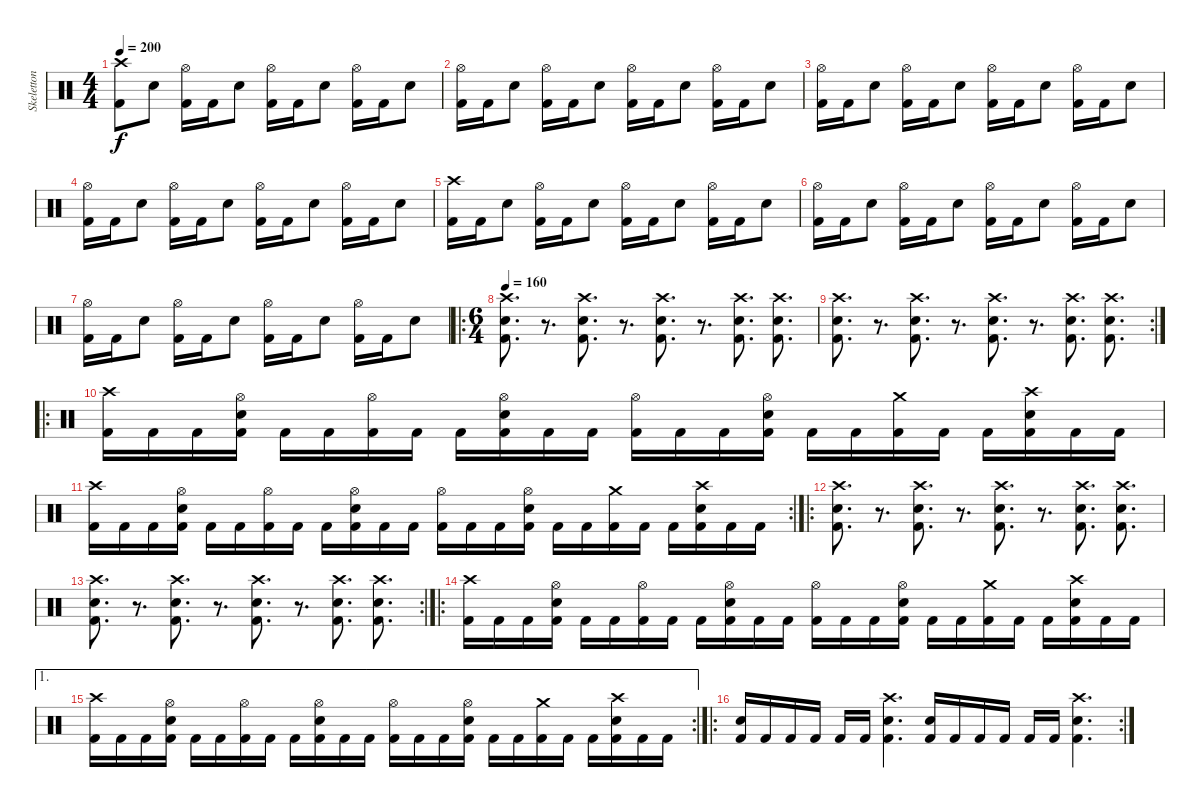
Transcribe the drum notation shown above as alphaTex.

\track ("Skeletton - Drums" "Skeletton ") {instrument percussion}
\staff {score}
\articulation defaults
\ts (4 4)
\tempo 200
\clef neutral
\ks c
("Crash high (hit)" "Kick (hit) 2").8{dy f} "Electric Snare (hit)".8 ("Hi-Hat (open)" "Kick (hit) 2").16 "Kick (hit) 2".16 "Electric Snare (hit)".8 ("Hi-Hat (open)" "Kick (hit) 2").16 "Kick (hit) 2".16 "Electric Snare (hit)".8 ("Hi-Hat (open)" "Kick (hit) 2").16 "Kick (hit) 2".16 "Electric Snare (hit)".8 |
("Hi-Hat (open)" "Kick (hit) 2").16 "Kick (hit) 2".16 "Electric Snare (hit)".8 ("Hi-Hat (open)" "Kick (hit) 2").16 "Kick (hit) 2".16 "Electric Snare (hit)".8 ("Hi-Hat (open)" "Kick (hit) 2").16 "Kick (hit) 2".16 "Electric Snare (hit)".8 ("Hi-Hat (open)" "Kick (hit) 2").16 "Kick (hit) 2".16 "Electric Snare (hit)".8 |
("Hi-Hat (open)" "Kick (hit) 2").16 "Kick (hit) 2".16 "Electric Snare (hit)".8 ("Hi-Hat (open)" "Kick (hit) 2").16 "Kick (hit) 2".16 "Electric Snare (hit)".8 ("Hi-Hat (open)" "Kick (hit) 2").16 "Kick (hit) 2".16 "Electric Snare (hit)".8 ("Hi-Hat (open)" "Kick (hit) 2").16 "Kick (hit) 2".16 "Electric Snare (hit)".8 |
("Hi-Hat (open)" "Kick (hit) 2").16 "Kick (hit) 2".16 "Electric Snare (hit)".8 ("Hi-Hat (open)" "Kick (hit) 2").16 "Kick (hit) 2".16 "Electric Snare (hit)".8 ("Hi-Hat (open)" "Kick (hit) 2").16 "Kick (hit) 2".16 "Electric Snare (hit)".8 ("Hi-Hat (open)" "Kick (hit) 2").16 "Kick (hit) 2".16 "Electric Snare (hit)".8 |
("Crash high (hit)" "Kick (hit) 2").16 "Kick (hit) 2".16 "Electric Snare (hit)".8 ("Hi-Hat (open)" "Kick (hit) 2").16 "Kick (hit) 2".16 "Electric Snare (hit)".8 ("Hi-Hat (open)" "Kick (hit) 2").16 "Kick (hit) 2".16 "Electric Snare (hit)".8 ("Hi-Hat (open)" "Kick (hit) 2").16 "Kick (hit) 2".16 "Electric Snare (hit)".8 |
("Hi-Hat (open)" "Kick (hit) 2").16 "Kick (hit) 2".16 "Electric Snare (hit)".8 ("Hi-Hat (open)" "Kick (hit) 2").16 "Kick (hit) 2".16 "Electric Snare (hit)".8 ("Hi-Hat (open)" "Kick (hit) 2").16 "Kick (hit) 2".16 "Electric Snare (hit)".8 ("Hi-Hat (open)" "Kick (hit) 2").16 "Kick (hit) 2".16 "Electric Snare (hit)".8 |
("Hi-Hat (open)" "Kick (hit) 2").16 "Kick (hit) 2".16 "Electric Snare (hit)".8 ("Hi-Hat (open)" "Kick (hit) 2").16 "Kick (hit) 2".16 "Electric Snare (hit)".8 ("Hi-Hat (open)" "Kick (hit) 2").16 "Kick (hit) 2".16 "Electric Snare (hit)".8 ("Hi-Hat (open)" "Kick (hit) 2").16 "Kick (hit) 2".16 "Electric Snare (hit)".8 |
\ro
\ts (6 4)
\tempo 160
("Crash high (hit)" "Electric Snare (hit)" "Kick (hit) 2").8{d} r.8{d} ("Crash high (hit)" "Electric Snare (hit)" "Kick (hit) 2").8{d} r.8{d} ("Crash high (hit)" "Electric Snare (hit)" "Kick (hit) 2").8{d} r.8{d} ("Crash high (hit)" "Electric Snare (hit)" "Kick (hit) 2").8{d} ("Crash high (hit)" "Electric Snare (hit)" "Kick (hit) 2").8{d} |
\rc 2
("Crash high (hit)" "Electric Snare (hit)" "Kick (hit) 2").8{d} r.8{d} ("Crash high (hit)" "Electric Snare (hit)" "Kick (hit) 2").8{d} r.8{d} ("Crash high (hit)" "Electric Snare (hit)" "Kick (hit) 2").8{d} r.8{d} ("Crash high (hit)" "Electric Snare (hit)" "Kick (hit) 2").8{d} ("Crash high (hit)" "Electric Snare (hit)" "Kick (hit) 2").8{d} |
\ro
("Crash high (hit)" "Kick (hit) 2").16 "Kick (hit) 2".16 "Kick (hit) 2".16 ("Hi-Hat (open)" "Electric Snare (hit)" "Kick (hit) 2").16 "Kick (hit) 2".16 "Kick (hit) 2".16 ("Hi-Hat (open)" "Kick (hit) 2").16 "Kick (hit) 2".16 "Kick (hit) 2".16 ("Hi-Hat (open)" "Electric Snare (hit)" "Kick (hit) 2").16 "Kick (hit) 2".16 "Kick (hit) 2".16 ("Hi-Hat (open)" "Kick (hit) 2").16 "Kick (hit) 2".16 "Kick (hit) 2".16 ("Hi-Hat (open)" "Electric Snare (hit)" "Kick (hit) 2").16 "Kick (hit) 2".16 "Kick (hit) 2".16 ("Crash medium (hit)" "Kick (hit) 2").16 "Kick (hit) 2".16 "Kick (hit) 2".16 ("Crash high (hit)" "Electric Snare (hit)" "Kick (hit) 2").16 "Kick (hit) 2".16 "Kick (hit) 2".16 |
\rc 2
("Crash high (hit)" "Kick (hit) 2").16 "Kick (hit) 2".16 "Kick (hit) 2".16 ("Hi-Hat (open)" "Electric Snare (hit)" "Kick (hit) 2").16 "Kick (hit) 2".16 "Kick (hit) 2".16 ("Hi-Hat (open)" "Kick (hit) 2").16 "Kick (hit) 2".16 "Kick (hit) 2".16 ("Hi-Hat (open)" "Electric Snare (hit)" "Kick (hit) 2").16 "Kick (hit) 2".16 "Kick (hit) 2".16 ("Hi-Hat (open)" "Kick (hit) 2").16 "Kick (hit) 2".16 "Kick (hit) 2".16 ("Hi-Hat (open)" "Electric Snare (hit)" "Kick (hit) 2").16 "Kick (hit) 2".16 "Kick (hit) 2".16 ("Crash medium (hit)" "Kick (hit) 2").16 "Kick (hit) 2".16 "Kick (hit) 2".16 ("Crash high (hit)" "Electric Snare (hit)" "Kick (hit) 2").16 "Kick (hit) 2".16 "Kick (hit) 2".16 |
\ro
("Crash high (hit)" "Electric Snare (hit)" "Kick (hit) 2").8{d} r.8{d} ("Crash high (hit)" "Electric Snare (hit)" "Kick (hit) 2").8{d} r.8{d} ("Crash high (hit)" "Electric Snare (hit)" "Kick (hit) 2").8{d} r.8{d} ("Crash high (hit)" "Electric Snare (hit)" "Kick (hit) 2").8{d} ("Crash high (hit)" "Electric Snare (hit)" "Kick (hit) 2").8{d} |
\rc 2
("Crash high (hit)" "Electric Snare (hit)" "Kick (hit) 2").8{d} r.8{d} ("Crash high (hit)" "Electric Snare (hit)" "Kick (hit) 2").8{d} r.8{d} ("Crash high (hit)" "Electric Snare (hit)" "Kick (hit) 2").8{d} r.8{d} ("Crash high (hit)" "Electric Snare (hit)" "Kick (hit) 2").8{d} ("Crash high (hit)" "Electric Snare (hit)" "Kick (hit) 2").8{d} |
\ro
("Crash high (hit)" "Kick (hit) 2").16 "Kick (hit) 2".16 "Kick (hit) 2".16 ("Hi-Hat (open)" "Electric Snare (hit)" "Kick (hit) 2").16 "Kick (hit) 2".16 "Kick (hit) 2".16 ("Hi-Hat (open)" "Kick (hit) 2").16 "Kick (hit) 2".16 "Kick (hit) 2".16 ("Hi-Hat (open)" "Electric Snare (hit)" "Kick (hit) 2").16 "Kick (hit) 2".16 "Kick (hit) 2".16 ("Hi-Hat (open)" "Kick (hit) 2").16 "Kick (hit) 2".16 "Kick (hit) 2".16 ("Hi-Hat (open)" "Electric Snare (hit)" "Kick (hit) 2").16 "Kick (hit) 2".16 "Kick (hit) 2".16 ("Crash medium (hit)" "Kick (hit) 2").16 "Kick (hit) 2".16 "Kick (hit) 2".16 ("Crash high (hit)" "Electric Snare (hit)" "Kick (hit) 2").16 "Kick (hit) 2".16 "Kick (hit) 2".16 |
\ae 1
\rc 2
("Crash high (hit)" "Kick (hit) 2").16 "Kick (hit) 2".16 "Kick (hit) 2".16 ("Hi-Hat (open)" "Electric Snare (hit)" "Kick (hit) 2").16 "Kick (hit) 2".16 "Kick (hit) 2".16 ("Hi-Hat (open)" "Kick (hit) 2").16 "Kick (hit) 2".16 "Kick (hit) 2".16 ("Hi-Hat (open)" "Electric Snare (hit)" "Kick (hit) 2").16 "Kick (hit) 2".16 "Kick (hit) 2".16 ("Hi-Hat (open)" "Kick (hit) 2").16 "Kick (hit) 2".16 "Kick (hit) 2".16 ("Hi-Hat (open)" "Electric Snare (hit)" "Kick (hit) 2").16 "Kick (hit) 2".16 "Kick (hit) 2".16 ("Crash medium (hit)" "Kick (hit) 2").16 "Kick (hit) 2".16 "Kick (hit) 2".16 ("Crash high (hit)" "Electric Snare (hit)" "Kick (hit) 2").16 "Kick (hit) 2".16 "Kick (hit) 2".16 |
\ro
\rc 2
("Electric Snare (hit)" "Kick (hit) 2").16 "Kick (hit) 2".16 "Kick (hit) 2".16 "Kick (hit) 2".16 "Kick (hit) 2".16 "Kick (hit) 2".16 ("Crash high (hit)" "Electric Snare (hit)" "Kick (hit) 2").4{d} ("Electric Snare (hit)" "Kick (hit) 2").16 "Kick (hit) 2".16 "Kick (hit) 2".16 "Kick (hit) 2".16 "Kick (hit) 2".16 "Kick (hit) 2".16 ("Crash high (hit)" "Electric Snare (hit)" "Kick (hit) 2").4{d}
